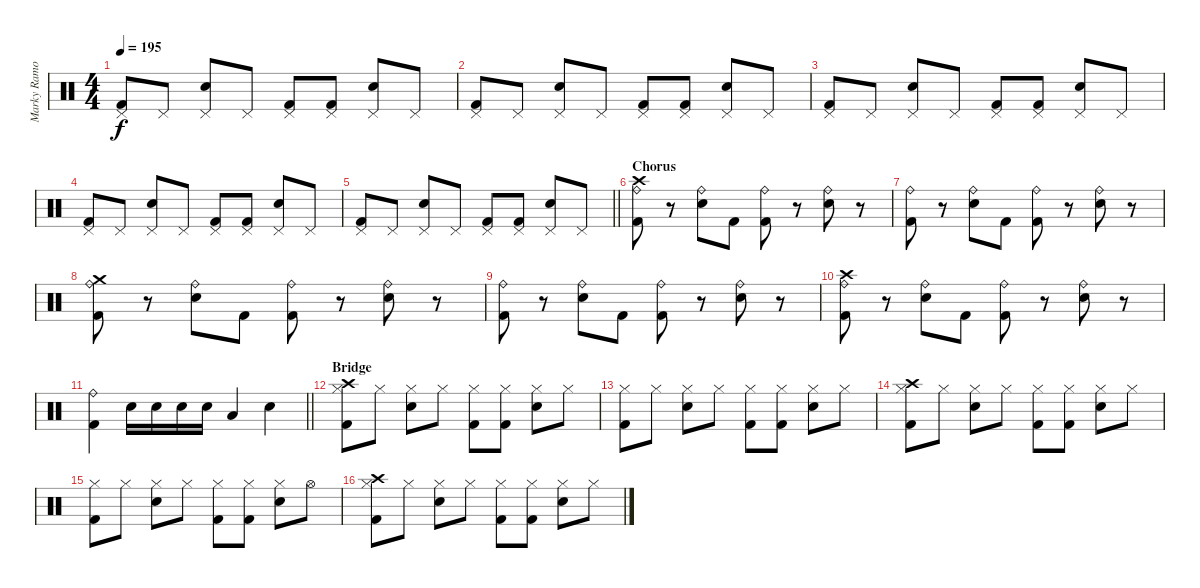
\track ("Marky Ramones" "Marky Ramo") {instrument percussion}
\staff {score}
\articulation defaults
\ts (4 4)
\tempo 195
\clef neutral
\ks c
("Pedal Hi-Hat (hit)" "Kick (hit) 2").8{dy f} "Pedal Hi-Hat (hit)".8 ("Pedal Hi-Hat (hit)" "Electric Snare (hit)").8 "Pedal Hi-Hat (hit)".8 ("Pedal Hi-Hat (hit)" "Kick (hit) 2").8 ("Pedal Hi-Hat (hit)" "Kick (hit) 2").8 ("Pedal Hi-Hat (hit)" "Electric Snare (hit)").8 "Pedal Hi-Hat (hit)".8 |
("Pedal Hi-Hat (hit)" "Kick (hit) 2").8 "Pedal Hi-Hat (hit)".8 ("Pedal Hi-Hat (hit)" "Electric Snare (hit)").8 "Pedal Hi-Hat (hit)".8 ("Pedal Hi-Hat (hit)" "Kick (hit) 2").8 ("Pedal Hi-Hat (hit)" "Kick (hit) 2").8 ("Pedal Hi-Hat (hit)" "Electric Snare (hit)").8 "Pedal Hi-Hat (hit)".8 |
("Pedal Hi-Hat (hit)" "Kick (hit) 2").8 "Pedal Hi-Hat (hit)".8 ("Pedal Hi-Hat (hit)" "Electric Snare (hit)").8 "Pedal Hi-Hat (hit)".8 ("Pedal Hi-Hat (hit)" "Kick (hit) 2").8 ("Pedal Hi-Hat (hit)" "Kick (hit) 2").8 ("Pedal Hi-Hat (hit)" "Electric Snare (hit)").8 "Pedal Hi-Hat (hit)".8 |
("Pedal Hi-Hat (hit)" "Kick (hit) 2").8 "Pedal Hi-Hat (hit)".8 ("Pedal Hi-Hat (hit)" "Electric Snare (hit)").8 "Pedal Hi-Hat (hit)".8 ("Pedal Hi-Hat (hit)" "Kick (hit) 2").8 ("Pedal Hi-Hat (hit)" "Kick (hit) 2").8 ("Pedal Hi-Hat (hit)" "Electric Snare (hit)").8 "Pedal Hi-Hat (hit)".8 |
\barLineRight lightlight
("Pedal Hi-Hat (hit)" "Kick (hit) 2").8 "Pedal Hi-Hat (hit)".8 ("Pedal Hi-Hat (hit)" "Electric Snare (hit)").8 "Pedal Hi-Hat (hit)".8 ("Pedal Hi-Hat (hit)" "Kick (hit) 2").8 ("Pedal Hi-Hat (hit)" "Kick (hit) 2").8 ("Pedal Hi-Hat (hit)" "Electric Snare (hit)").8 "Pedal Hi-Hat (hit)".8 |
\section ("" "Chorus")
("Ride (bell)" "Kick (hit) 2" "Crash high (hit)").8 r.8 ("Ride (bell)" "Electric Snare (hit)").8 "Kick (hit) 2".8 ("Ride (bell)" "Kick (hit) 2").8 r.8 ("Ride (bell)" "Electric Snare (hit)").8 r.8 |
("Ride (bell)" "Kick (hit) 2").8 r.8 ("Ride (bell)" "Electric Snare (hit)").8 "Kick (hit) 2".8 ("Ride (bell)" "Kick (hit) 2").8 r.8 ("Ride (bell)" "Electric Snare (hit)").8 r.8 |
("Ride (bell)" "Kick (hit) 2" "Crash medium (hit)").8 r.8 ("Ride (bell)" "Electric Snare (hit)").8 "Kick (hit) 2".8 ("Ride (bell)" "Kick (hit) 2").8 r.8 ("Ride (bell)" "Electric Snare (hit)").8 r.8 |
("Ride (bell)" "Kick (hit) 2").8 r.8 ("Ride (bell)" "Electric Snare (hit)").8 "Kick (hit) 2".8 ("Ride (bell)" "Kick (hit) 2").8 r.8 ("Ride (bell)" "Electric Snare (hit)").8 r.8 |
("Ride (bell)" "Kick (hit) 2" "Crash high (hit)").8 r.8 ("Ride (bell)" "Electric Snare (hit)").8 "Kick (hit) 2".8 ("Ride (bell)" "Kick (hit) 2").8 r.8 ("Ride (bell)" "Electric Snare (hit)").8 r.8 |
\barLineRight lightlight
("Ride (bell)" "Kick (hit) 2").4 "Electric Snare (hit)".16 "Electric Snare (hit)".16 "Electric Snare (hit)".16 "Electric Snare (hit)".16 "Low Tom (hit)".4 "Electric Snare (hit)".4 |
\section ("" "Bridge")
("Hi-Hat (closed)" "Kick (hit) 2" "Crash high (hit)").8 "Hi-Hat (closed)".8 ("Hi-Hat (closed)" "Electric Snare (hit)").8 "Hi-Hat (closed)".8 ("Hi-Hat (closed)" "Kick (hit) 2").8 ("Hi-Hat (closed)" "Kick (hit) 2").8 ("Hi-Hat (closed)" "Electric Snare (hit)").8 "Hi-Hat (closed)".8 |
("Hi-Hat (closed)" "Kick (hit) 2").8 "Hi-Hat (closed)".8 ("Hi-Hat (closed)" "Electric Snare (hit)").8 "Hi-Hat (closed)".8 ("Hi-Hat (closed)" "Kick (hit) 2").8 ("Hi-Hat (closed)" "Kick (hit) 2").8 ("Hi-Hat (closed)" "Electric Snare (hit)").8 "Hi-Hat (closed)".8 |
("Hi-Hat (closed)" "Kick (hit) 2" "Crash high (hit)").8 "Hi-Hat (closed)".8 ("Hi-Hat (closed)" "Electric Snare (hit)").8 "Hi-Hat (closed)".8 ("Hi-Hat (closed)" "Kick (hit) 2").8 ("Hi-Hat (closed)" "Kick (hit) 2").8 ("Hi-Hat (closed)" "Electric Snare (hit)").8 "Hi-Hat (closed)".8 |
("Hi-Hat (closed)" "Kick (hit) 2").8 "Hi-Hat (closed)".8 ("Hi-Hat (closed)" "Electric Snare (hit)").8 "Hi-Hat (closed)".8 ("Hi-Hat (closed)" "Kick (hit) 2").8 ("Hi-Hat (closed)" "Kick (hit) 2").8 ("Hi-Hat (closed)" "Electric Snare (hit)").8 "Hi-Hat (open)".8 |
("Hi-Hat (closed)" "Kick (hit) 2" "Crash high (hit)").8 "Hi-Hat (closed)".8 ("Hi-Hat (closed)" "Electric Snare (hit)").8 "Hi-Hat (closed)".8 ("Hi-Hat (closed)" "Kick (hit) 2").8 ("Hi-Hat (closed)" "Kick (hit) 2").8 ("Hi-Hat (closed)" "Electric Snare (hit)").8 "Hi-Hat (closed)".8
